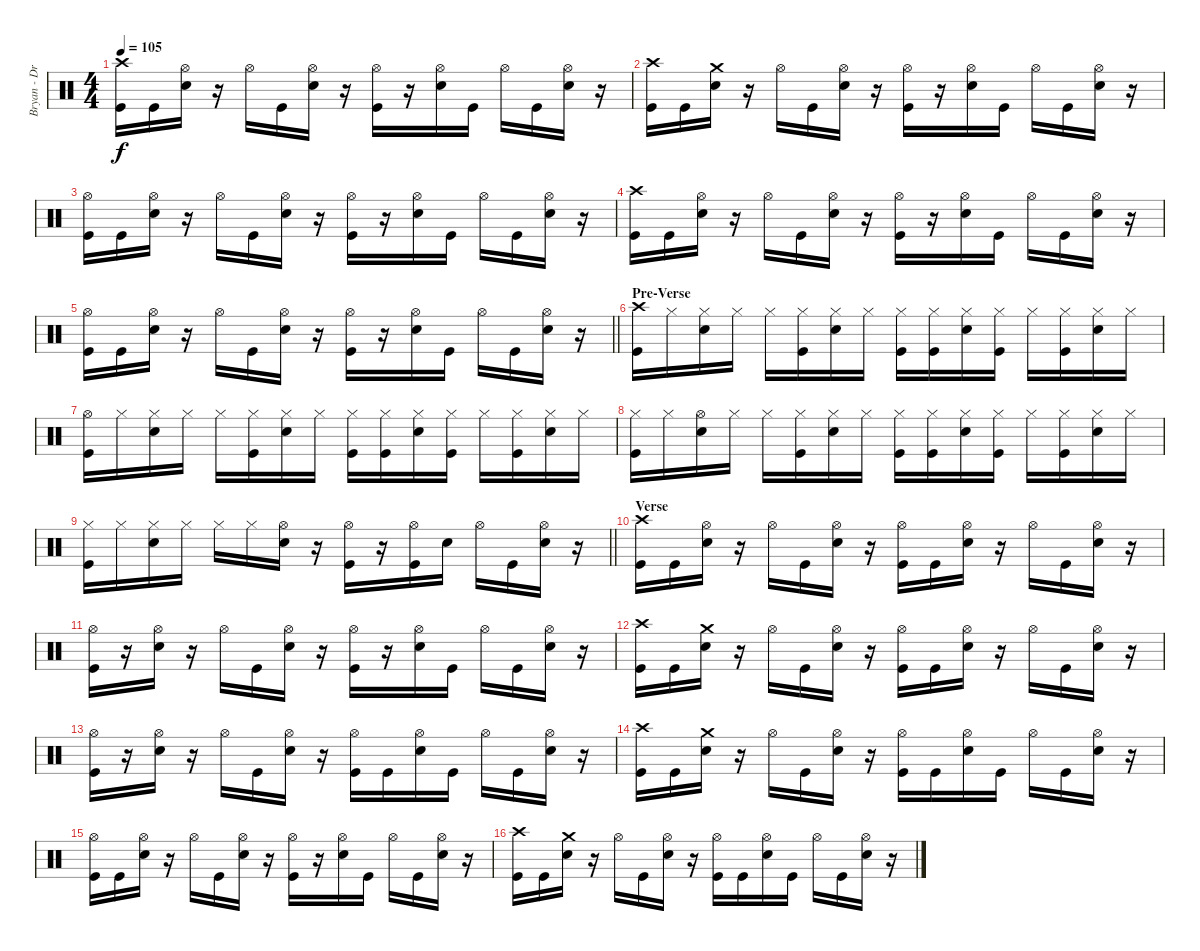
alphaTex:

\track ("Bryan - Drums" "Bryan - Dr") {instrument percussion}
\staff {score}
\articulation defaults
\ts (4 4)
\tempo 105
\clef neutral
\ks c
("Crash high (hit)" "Kick (hit)").16{dy f} "Kick (hit)".16 ("Hi-Hat (open)" "Snare (hit) 2").16 r.16 "Hi-Hat (open)".16 "Kick (hit)".16 ("Hi-Hat (open)" "Snare (hit) 2").16 r.16 ("Hi-Hat (open)" "Kick (hit)").16 r.16 ("Hi-Hat (open)" "Snare (hit) 2").16 "Kick (hit)".16 "Hi-Hat (open)".16 "Kick (hit)".16 ("Hi-Hat (open)" "Snare (hit) 2").16 r.16 |
("Crash high (hit)" "Kick (hit)").16 "Kick (hit)".16 ("Crash medium (hit)" "Snare (hit) 2").16 r.16 "Hi-Hat (open)".16 "Kick (hit)".16 ("Hi-Hat (open)" "Snare (hit) 2").16 r.16 ("Hi-Hat (open)" "Kick (hit)").16 r.16 ("Hi-Hat (open)" "Snare (hit) 2").16 "Kick (hit)".16 "Hi-Hat (open)".16 "Kick (hit)".16 ("Hi-Hat (open)" "Snare (hit) 2").16 r.16 |
("Hi-Hat (open)" "Kick (hit)").16 "Kick (hit)".16 ("Hi-Hat (open)" "Snare (hit) 2").16 r.16 "Hi-Hat (open)".16 "Kick (hit)".16 ("Hi-Hat (open)" "Snare (hit) 2").16 r.16 ("Hi-Hat (open)" "Kick (hit)").16 r.16 ("Hi-Hat (open)" "Snare (hit) 2").16 "Kick (hit)".16 "Hi-Hat (open)".16 "Kick (hit)".16 ("Hi-Hat (open)" "Snare (hit) 2").16 r.16 |
("Crash high (hit)" "Kick (hit)").16 "Kick (hit)".16 ("Hi-Hat (open)" "Snare (hit) 2").16 r.16 "Hi-Hat (open)".16 "Kick (hit)".16 ("Hi-Hat (open)" "Snare (hit) 2").16 r.16 ("Hi-Hat (open)" "Kick (hit)").16 r.16 ("Hi-Hat (open)" "Snare (hit) 2").16 "Kick (hit)".16 "Hi-Hat (open)".16 "Kick (hit)".16 ("Hi-Hat (open)" "Snare (hit) 2").16 r.16 |
\barLineRight lightlight
("Hi-Hat (open)" "Kick (hit)").16 "Kick (hit)".16 ("Hi-Hat (open)" "Snare (hit) 2").16 r.16 "Hi-Hat (open)".16 "Kick (hit)".16 ("Hi-Hat (open)" "Snare (hit) 2").16 r.16 ("Hi-Hat (open)" "Kick (hit)").16 r.16 ("Hi-Hat (open)" "Snare (hit) 2").16 "Kick (hit)".16 "Hi-Hat (open)".16 "Kick (hit)".16 ("Hi-Hat (open)" "Snare (hit) 2").16 r.16 |
\section ("" "Pre-Verse")
("Crash high (hit)" "Kick (hit)").16 "Hi-Hat (closed)".16 ("Hi-Hat (closed)" "Snare (hit) 2").16 "Hi-Hat (closed)".16 "Hi-Hat (closed)".16 ("Hi-Hat (closed)" "Kick (hit)").16 ("Hi-Hat (closed)" "Snare (hit) 2").16 "Hi-Hat (closed)".16 ("Hi-Hat (closed)" "Kick (hit)").16 ("Hi-Hat (closed)" "Kick (hit)").16 ("Hi-Hat (closed)" "Snare (hit) 2").16 ("Hi-Hat (closed)" "Kick (hit)").16 "Hi-Hat (closed)".16 ("Hi-Hat (closed)" "Kick (hit)").16 ("Hi-Hat (closed)" "Snare (hit) 2").16 "Hi-Hat (closed)".16 |
("Hi-Hat (open)" "Kick (hit)").16 "Hi-Hat (closed)".16 ("Hi-Hat (closed)" "Snare (hit) 2").16 "Hi-Hat (closed)".16 "Hi-Hat (closed)".16 ("Hi-Hat (closed)" "Kick (hit)").16 ("Hi-Hat (closed)" "Snare (hit) 2").16 "Hi-Hat (closed)".16 ("Hi-Hat (closed)" "Kick (hit)").16 ("Hi-Hat (closed)" "Kick (hit)").16 ("Hi-Hat (closed)" "Snare (hit) 2").16 ("Hi-Hat (closed)" "Kick (hit)").16 "Hi-Hat (closed)".16 ("Hi-Hat (closed)" "Kick (hit)").16 ("Hi-Hat (closed)" "Snare (hit) 2").16 "Hi-Hat (closed)".16 |
("Hi-Hat (closed)" "Kick (hit)").16 "Hi-Hat (closed)".16 ("Hi-Hat (open)" "Snare (hit) 2").16 "Hi-Hat (closed)".16 "Hi-Hat (closed)".16 ("Hi-Hat (closed)" "Kick (hit)").16 ("Hi-Hat (closed)" "Snare (hit) 2").16 "Hi-Hat (closed)".16 ("Hi-Hat (closed)" "Kick (hit)").16 ("Hi-Hat (closed)" "Kick (hit)").16 ("Hi-Hat (closed)" "Snare (hit) 2").16 ("Hi-Hat (closed)" "Kick (hit)").16 "Hi-Hat (closed)".16 ("Hi-Hat (closed)" "Kick (hit)").16 ("Hi-Hat (closed)" "Snare (hit) 2").16 "Hi-Hat (closed)".16 |
\barLineRight lightlight
("Hi-Hat (closed)" "Kick (hit)").16 "Hi-Hat (closed)".16 ("Hi-Hat (closed)" "Snare (hit) 2").16 "Hi-Hat (closed)".16 "Hi-Hat (closed)".16 "Hi-Hat (closed)".16 ("Hi-Hat (open)" "Snare (hit) 2").16 r.16 ("Hi-Hat (open)" "Kick (hit)").16 r.16 ("Hi-Hat (open)" "Kick (hit)").16 "Snare (hit) 2".16 "Hi-Hat (open)".16 "Kick (hit)".16 ("Hi-Hat (open)" "Snare (hit) 2").16 r.16 |
\section ("" "Verse")
("Crash high (hit)" "Kick (hit)").16 "Kick (hit)".16 ("Hi-Hat (open)" "Snare (hit) 2").16 r.16 "Hi-Hat (open)".16 "Kick (hit)".16 ("Hi-Hat (open)" "Snare (hit) 2").16 r.16 ("Hi-Hat (open)" "Kick (hit)").16 "Kick (hit)".16 ("Hi-Hat (open)" "Snare (hit) 2").16 r.16 "Hi-Hat (open)".16 "Kick (hit)".16 ("Hi-Hat (open)" "Snare (hit) 2").16 r.16 |
("Hi-Hat (open)" "Kick (hit)").16 r.16 ("Hi-Hat (open)" "Snare (hit) 2").16 r.16 "Hi-Hat (open)".16 "Kick (hit)".16 ("Hi-Hat (open)" "Snare (hit) 2").16 r.16 ("Hi-Hat (open)" "Kick (hit)").16 r.16 ("Hi-Hat (open)" "Snare (hit) 2").16 "Kick (hit)".16 "Hi-Hat (open)".16 "Kick (hit)".16 ("Hi-Hat (open)" "Snare (hit) 2").16 r.16 |
("Crash high (hit)" "Kick (hit)").16 "Kick (hit)".16 ("Crash medium (hit)" "Snare (hit) 2").16 r.16 "Hi-Hat (open)".16 "Kick (hit)".16 ("Hi-Hat (open)" "Snare (hit) 2").16 r.16 ("Hi-Hat (open)" "Kick (hit)").16 "Kick (hit)".16 ("Hi-Hat (open)" "Snare (hit) 2").16 r.16 "Hi-Hat (open)".16 "Kick (hit)".16 ("Hi-Hat (open)" "Snare (hit) 2").16 r.16 |
("Hi-Hat (open)" "Kick (hit)").16 r.16 ("Hi-Hat (open)" "Snare (hit) 2").16 r.16 "Hi-Hat (open)".16 "Kick (hit)".16 ("Hi-Hat (open)" "Snare (hit) 2").16 r.16 ("Hi-Hat (open)" "Kick (hit)").16 "Kick (hit)".16 ("Hi-Hat (open)" "Snare (hit) 2").16 "Kick (hit)".16 "Hi-Hat (open)".16 "Kick (hit)".16 ("Hi-Hat (open)" "Snare (hit) 2").16 r.16 |
("Crash high (hit)" "Kick (hit)").16 "Kick (hit)".16 ("Crash medium (hit)" "Snare (hit) 2").16 r.16 "Hi-Hat (open)".16 "Kick (hit)".16 ("Hi-Hat (open)" "Snare (hit) 2").16 r.16 ("Hi-Hat (open)" "Kick (hit)").16 "Kick (hit)".16 ("Hi-Hat (open)" "Snare (hit) 2").16 "Kick (hit)".16 "Hi-Hat (open)".16 "Kick (hit)".16 ("Hi-Hat (open)" "Snare (hit) 2").16 r.16 |
("Hi-Hat (open)" "Kick (hit)").16 "Kick (hit)".16 ("Hi-Hat (open)" "Snare (hit) 2").16 r.16 "Hi-Hat (open)".16 "Kick (hit)".16 ("Hi-Hat (open)" "Snare (hit) 2").16 r.16 ("Hi-Hat (open)" "Kick (hit)").16 r.16 ("Hi-Hat (open)" "Snare (hit) 2").16 "Kick (hit)".16 "Hi-Hat (open)".16 "Kick (hit)".16 ("Hi-Hat (open)" "Snare (hit) 2").16 r.16 |
("Crash high (hit)" "Kick (hit)").16 "Kick (hit)".16 ("Crash medium (hit)" "Snare (hit) 2").16 r.16 "Hi-Hat (open)".16 "Kick (hit)".16 ("Hi-Hat (open)" "Snare (hit) 2").16 r.16 ("Hi-Hat (open)" "Kick (hit)").16 "Kick (hit)".16 ("Hi-Hat (open)" "Snare (hit) 2").16 "Kick (hit)".16 "Hi-Hat (open)".16 "Kick (hit)".16 ("Hi-Hat (open)" "Snare (hit) 2").16 r.16
